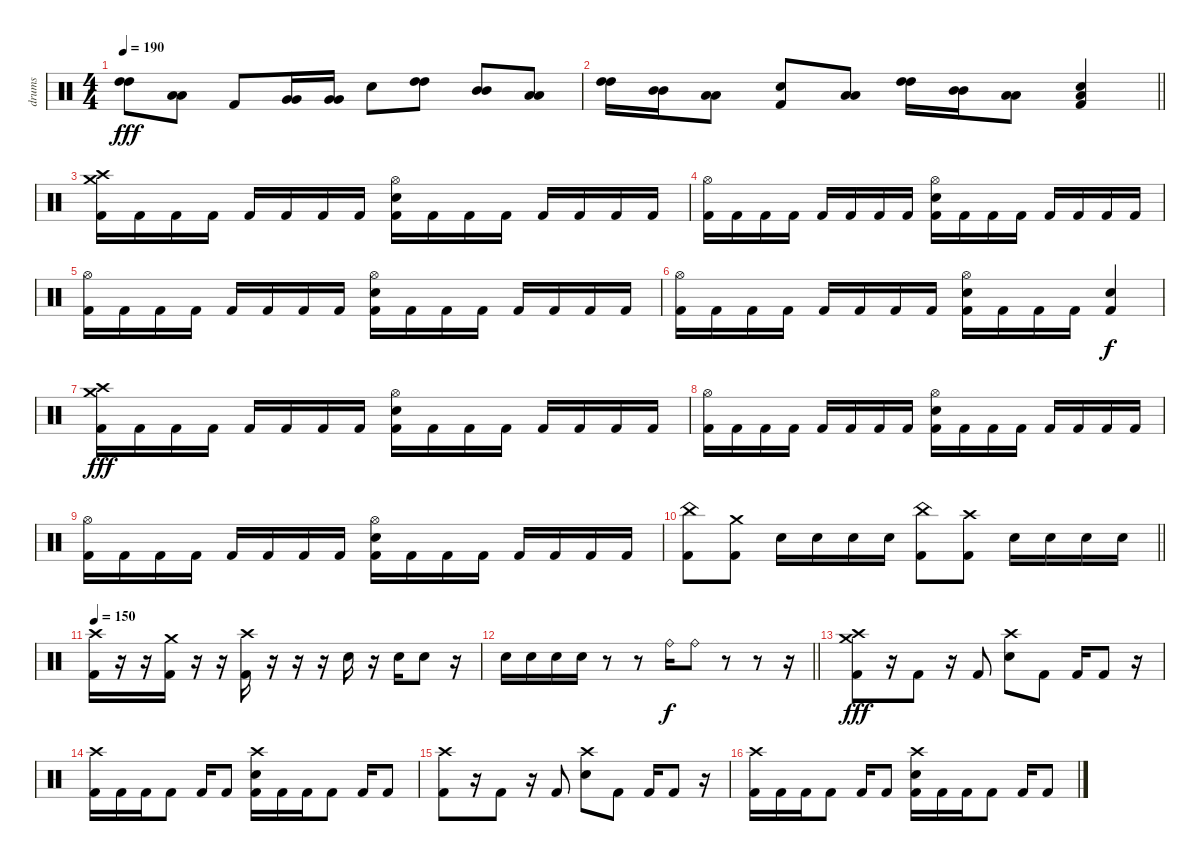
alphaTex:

\track ("drums" "drums") {instrument percussion}
\staff {score}
\articulation defaults
\ts (4 4)
\tempo 190
\clef neutral
\ks c
("High Tom (hit)" "High Tom (hit)").8{dy fff} ("Low Tom (hit)" "Low Tom (hit)").8 "Kick (hit) 2".8 ("Very Low Tom (hit)" "Very Low Tom (hit)").16 ("Very Low Tom (hit)" "Very Low Tom (hit)").16 "Electric Snare (hit)".8 ("High Tom (hit)" "High Tom (hit)").8 ("Mid Tom (hit)" "Mid Tom (hit)").8 ("Low Tom (hit)" "Low Tom (hit)").8 |
\barLineRight lightlight
("High Tom (hit)" "High Tom (hit)").16 ("Mid Tom (hit)" "Mid Tom (hit)").16 ("Low Tom (hit)" "Low Tom (hit)").8 ("Electric Snare (hit)" "Kick (hit) 2").8 ("Low Tom (hit)" "Low Tom (hit)").8 ("High Tom (hit)" "High Tom (hit)").16 ("Mid Tom (hit)" "Mid Tom (hit)").16 ("Low Tom (hit)" "Low Tom (hit)").8 ("Electric Snare (hit)" "Low Floor Tom (hit)" "Kick (hit) 2").4 |
\section ("" "")
("Crash high (hit)" "Crash medium (hit)" "Kick (hit) 2").16 "Kick (hit) 2".16 "Kick (hit) 2".16 "Kick (hit) 2".16 "Kick (hit) 2".16 "Kick (hit) 2".16 "Kick (hit) 2".16 "Kick (hit) 2".16 ("Hi-Hat (open)" "Electric Snare (hit)" "Kick (hit) 2").16 "Kick (hit) 2".16 "Kick (hit) 2".16 "Kick (hit) 2".16 "Kick (hit) 2".16 "Kick (hit) 2".16 "Kick (hit) 2".16 "Kick (hit) 2".16 |
("Hi-Hat (open)" "Kick (hit) 2").16 "Kick (hit) 2".16 "Kick (hit) 2".16 "Kick (hit) 2".16 "Kick (hit) 2".16 "Kick (hit) 2".16 "Kick (hit) 2".16 "Kick (hit) 2".16 ("Hi-Hat (open)" "Electric Snare (hit)" "Kick (hit) 2").16 "Kick (hit) 2".16 "Kick (hit) 2".16 "Kick (hit) 2".16 "Kick (hit) 2".16 "Kick (hit) 2".16 "Kick (hit) 2".16 "Kick (hit) 2".16 |
("Hi-Hat (open)" "Kick (hit) 2").16 "Kick (hit) 2".16 "Kick (hit) 2".16 "Kick (hit) 2".16 "Kick (hit) 2".16 "Kick (hit) 2".16 "Kick (hit) 2".16 "Kick (hit) 2".16 ("Hi-Hat (open)" "Electric Snare (hit)" "Kick (hit) 2").16 "Kick (hit) 2".16 "Kick (hit) 2".16 "Kick (hit) 2".16 "Kick (hit) 2".16 "Kick (hit) 2".16 "Kick (hit) 2".16 "Kick (hit) 2".16 |
("Hi-Hat (open)" "Kick (hit) 2").16 "Kick (hit) 2".16 "Kick (hit) 2".16 "Kick (hit) 2".16 "Kick (hit) 2".16 "Kick (hit) 2".16 "Kick (hit) 2".16 "Kick (hit) 2".16 ("Hi-Hat (open)" "Electric Snare (hit)" "Kick (hit) 2").16 "Kick (hit) 2".16 "Kick (hit) 2".16 "Kick (hit) 2".16 ("Electric Snare (hit)" "Kick (hit) 2").4{dy f} |
("Crash high (hit)" "Crash medium (hit)" "Kick (hit) 2").16{dy fff} "Kick (hit) 2".16 "Kick (hit) 2".16 "Kick (hit) 2".16 "Kick (hit) 2".16 "Kick (hit) 2".16 "Kick (hit) 2".16 "Kick (hit) 2".16 ("Hi-Hat (open)" "Electric Snare (hit)" "Kick (hit) 2").16 "Kick (hit) 2".16 "Kick (hit) 2".16 "Kick (hit) 2".16 "Kick (hit) 2".16 "Kick (hit) 2".16 "Kick (hit) 2".16 "Kick (hit) 2".16 |
("Hi-Hat (open)" "Kick (hit) 2").16 "Kick (hit) 2".16 "Kick (hit) 2".16 "Kick (hit) 2".16 "Kick (hit) 2".16 "Kick (hit) 2".16 "Kick (hit) 2".16 "Kick (hit) 2".16 ("Hi-Hat (open)" "Electric Snare (hit)" "Kick (hit) 2").16 "Kick (hit) 2".16 "Kick (hit) 2".16 "Kick (hit) 2".16 "Kick (hit) 2".16 "Kick (hit) 2".16 "Kick (hit) 2".16 "Kick (hit) 2".16 |
("Hi-Hat (open)" "Kick (hit) 2").16 "Kick (hit) 2".16 "Kick (hit) 2".16 "Kick (hit) 2".16 "Kick (hit) 2".16 "Kick (hit) 2".16 "Kick (hit) 2".16 "Kick (hit) 2".16 ("Hi-Hat (open)" "Electric Snare (hit)" "Kick (hit) 2").16 "Kick (hit) 2".16 "Kick (hit) 2".16 "Kick (hit) 2".16 "Kick (hit) 2".16 "Kick (hit) 2".16 "Kick (hit) 2".16 "Kick (hit) 2".16 |
\barLineRight lightlight
("China (hit)" "Kick (hit) 2").8 ("Crash medium (hit)" "Kick (hit) 2").8 "Electric Snare (hit)".16 "Electric Snare (hit)".16 "Electric Snare (hit)".16 "Electric Snare (hit)".16 ("China (hit)" "Kick (hit) 2").8 ("Crash high (hit)" "Kick (hit) 2").8 "Electric Snare (hit)".16 "Electric Snare (hit)".16 "Electric Snare (hit)".16 "Electric Snare (hit)".16 |
\section ("" "")
\tempo 150
("Crash high (hit)" "Kick (hit) 2").16 r.16 r.16 ("Crash medium (hit)" "Kick (hit) 2").16 r.16 r.16 ("Crash high (hit)" "Kick (hit) 2").16 r.16 r.16 r.16 "Electric Snare (hit)".16 r.16 "Electric Snare (hit)".16 "Electric Snare (hit)".8 r.16 |
\barLineRight lightlight "Electric Snare (hit)".16 "Electric Snare (hit)".16 "Electric Snare (hit)".16 "Electric Snare (hit)".16
r.8 r.8 "Ride (bell)".16{dy f} "Ride (bell)".8 r.8 r.8 r.16 |
\section ("" "")
("Crash high (hit)" "Crash medium (hit)" "Kick (hit) 2").8{dy fff} r.16 "Kick (hit) 2".8 r.16 "Kick (hit) 2".8 ("Crash high (hit)" "Electric Snare (hit)").8 "Kick (hit) 2".8 "Kick (hit) 2".16 "Kick (hit) 2".8 r.16 |
("Crash high (hit)" "Kick (hit) 2").16 "Kick (hit) 2".16 "Kick (hit) 2".16 "Kick (hit) 2".8 "Kick (hit) 2".16 "Kick (hit) 2".8 ("Crash high (hit)" "Electric Snare (hit)" "Kick (hit) 2").16 "Kick (hit) 2".16 "Kick (hit) 2".16 "Kick (hit) 2".8 "Kick (hit) 2".16 "Kick (hit) 2".8 |
("Crash high (hit)" "Kick (hit) 2").8 r.16 "Kick (hit) 2".8 r.16 "Kick (hit) 2".8 ("Crash high (hit)" "Electric Snare (hit)").8 "Kick (hit) 2".8 "Kick (hit) 2".16 "Kick (hit) 2".8 r.16 |
("Crash high (hit)" "Kick (hit) 2").16 "Kick (hit) 2".16 "Kick (hit) 2".16 "Kick (hit) 2".8 "Kick (hit) 2".16 "Kick (hit) 2".8 ("Crash high (hit)" "Electric Snare (hit)" "Kick (hit) 2").16 "Kick (hit) 2".16 "Kick (hit) 2".16 "Kick (hit) 2".8 "Kick (hit) 2".16 "Kick (hit) 2".8
